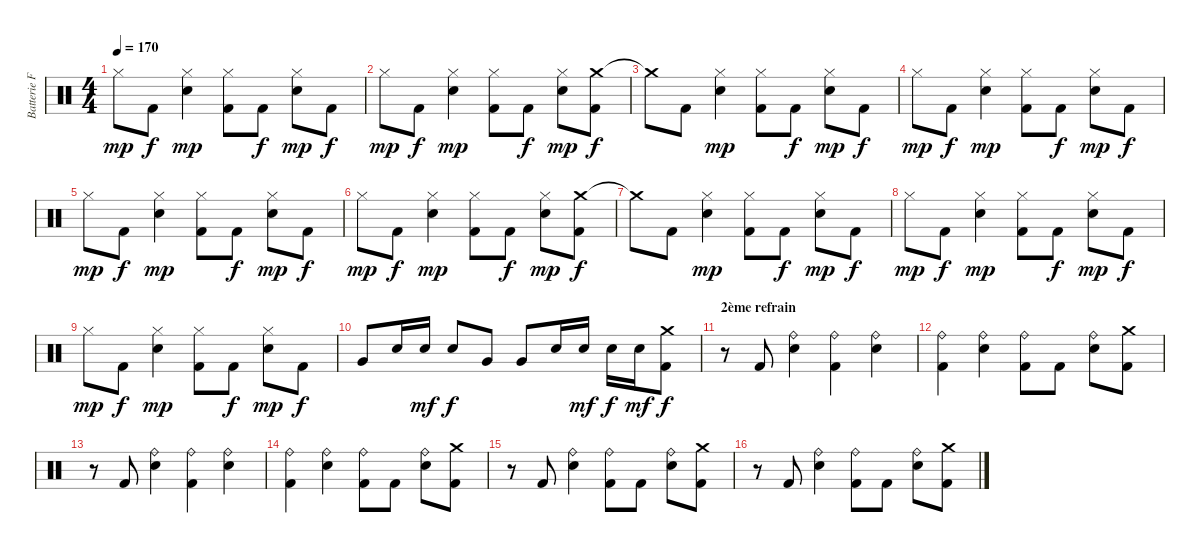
\track ("Batterie Franck" "Batterie F") {instrument percussion}
\staff {score}
\articulation defaults
\ts (4 4)
\tempo 170
\clef neutral
\ks c "Hi-Hat (closed)".8{dy mp} "Kick (hit) 2".8{dy f}
("Hi-Hat (closed)" "Snare (hit) 2").4{dy mp} ("Hi-Hat (closed)" "Kick (hit) 2").8 "Kick (hit) 2".8{dy f} ("Hi-Hat (closed)" "Snare (hit) 2").8{dy mp} "Kick (hit) 2".8{dy f} |
"Hi-Hat (closed)".8{dy mp} "Kick (hit) 2".8{dy f} ("Hi-Hat (closed)" "Snare (hit) 2").4{dy mp} ("Hi-Hat (closed)" "Kick (hit) 2").8 "Kick (hit) 2".8{dy f} ("Hi-Hat (closed)" "Snare (hit) 2").8{dy mp} ("Crash medium (hit)" "Kick (hit) 2").8{dy f} |
"Crash medium (hit)"{t}.8 "Kick (hit) 2".8 ("Hi-Hat (closed)" "Snare (hit) 2").4{dy mp} ("Hi-Hat (closed)" "Kick (hit) 2").8 "Kick (hit) 2".8{dy f} ("Hi-Hat (closed)" "Snare (hit) 2").8{dy mp} "Kick (hit) 2".8{dy f} |
"Hi-Hat (closed)".8{dy mp} "Kick (hit) 2".8{dy f} ("Hi-Hat (closed)" "Snare (hit) 2").4{dy mp} ("Hi-Hat (closed)" "Kick (hit) 2").8 "Kick (hit) 2".8{dy f} ("Hi-Hat (closed)" "Snare (hit) 2").8{dy mp} "Kick (hit) 2".8{dy f} |
"Hi-Hat (closed)".8{dy mp} "Kick (hit) 2".8{dy f} ("Hi-Hat (closed)" "Snare (hit) 2").4{dy mp} ("Hi-Hat (closed)" "Kick (hit) 2").8 "Kick (hit) 2".8{dy f} ("Hi-Hat (closed)" "Snare (hit) 2").8{dy mp} "Kick (hit) 2".8{dy f} |
"Hi-Hat (closed)".8{dy mp} "Kick (hit) 2".8{dy f} ("Hi-Hat (closed)" "Snare (hit) 2").4{dy mp} ("Hi-Hat (closed)" "Kick (hit) 2").8 "Kick (hit) 2".8{dy f} ("Hi-Hat (closed)" "Snare (hit) 2").8{dy mp} ("Crash medium (hit)" "Kick (hit) 2").8{dy f} |
"Crash medium (hit)"{t}.8 "Kick (hit) 2".8 ("Hi-Hat (closed)" "Snare (hit) 2").4{dy mp} ("Hi-Hat (closed)" "Kick (hit) 2").8 "Kick (hit) 2".8{dy f} ("Hi-Hat (closed)" "Snare (hit) 2").8{dy mp} "Kick (hit) 2".8{dy f} |
"Hi-Hat (closed)".8{dy mp} "Kick (hit) 2".8{dy f} ("Hi-Hat (closed)" "Snare (hit) 2").4{dy mp} ("Hi-Hat (closed)" "Kick (hit) 2").8 "Kick (hit) 2".8{dy f} ("Hi-Hat (closed)" "Snare (hit) 2").8{dy mp} "Kick (hit) 2".8{dy f} |
"Hi-Hat (closed)".8{dy mp} "Kick (hit) 2".8{dy f} ("Hi-Hat (closed)" "Snare (hit) 2").4{dy mp} ("Hi-Hat (closed)" "Kick (hit) 2").8 "Kick (hit) 2".8{dy f} ("Hi-Hat (closed)" "Snare (hit) 2").8{dy mp} "Kick (hit) 2".8{dy f} |
"Very Low Tom (hit)".8 "Snare (hit) 2".16 "Snare (hit) 2".16{dy mf} "Snare (hit) 2".8{dy f} "Very Low Tom (hit)".8 "Very Low Tom (hit)".8 "Snare (hit) 2".16 "Snare (hit) 2".16{dy mf} "Snare (hit) 2".16{dy f} "Snare (hit) 2".16{dy mf} ("Crash medium (hit)" "Kick (hit) 2").8{dy f} |
\section ("" "2ème refrain")
r.8 "Kick (hit) 2".8 ("Ride (bell)" "Snare (hit) 2").4 ("Ride (bell)" "Kick (hit) 2").4 ("Ride (bell)" "Snare (hit) 2").4 |
("Ride (bell)" "Kick (hit) 2").4 ("Ride (bell)" "Snare (hit) 2").4 ("Ride (bell)" "Kick (hit) 2").8 "Kick (hit) 2".8 ("Ride (bell)" "Snare (hit) 2").8 ("Crash medium (hit)" "Kick (hit) 2").8 |
r.8 "Kick (hit) 2".8 ("Ride (bell)" "Snare (hit) 2").4 ("Ride (bell)" "Kick (hit) 2").4 ("Ride (bell)" "Snare (hit) 2").4 |
("Ride (bell)" "Kick (hit) 2").4 ("Ride (bell)" "Snare (hit) 2").4 ("Ride (bell)" "Kick (hit) 2").8 "Kick (hit) 2".8 ("Ride (bell)" "Snare (hit) 2").8 ("Crash medium (hit)" "Kick (hit) 2").8 |
r.8 "Kick (hit) 2".8 ("Ride (bell)" "Snare (hit) 2").4 ("Ride (bell)" "Kick (hit) 2").8 "Kick (hit) 2".8 ("Ride (bell)" "Snare (hit) 2").8 ("Crash medium (hit)" "Kick (hit) 2").8 |
r.8 "Kick (hit) 2".8 ("Ride (bell)" "Snare (hit) 2").4 ("Ride (bell)" "Kick (hit) 2").8 "Kick (hit) 2".8 ("Ride (bell)" "Snare (hit) 2").8 ("Crash medium (hit)" "Kick (hit) 2").8
